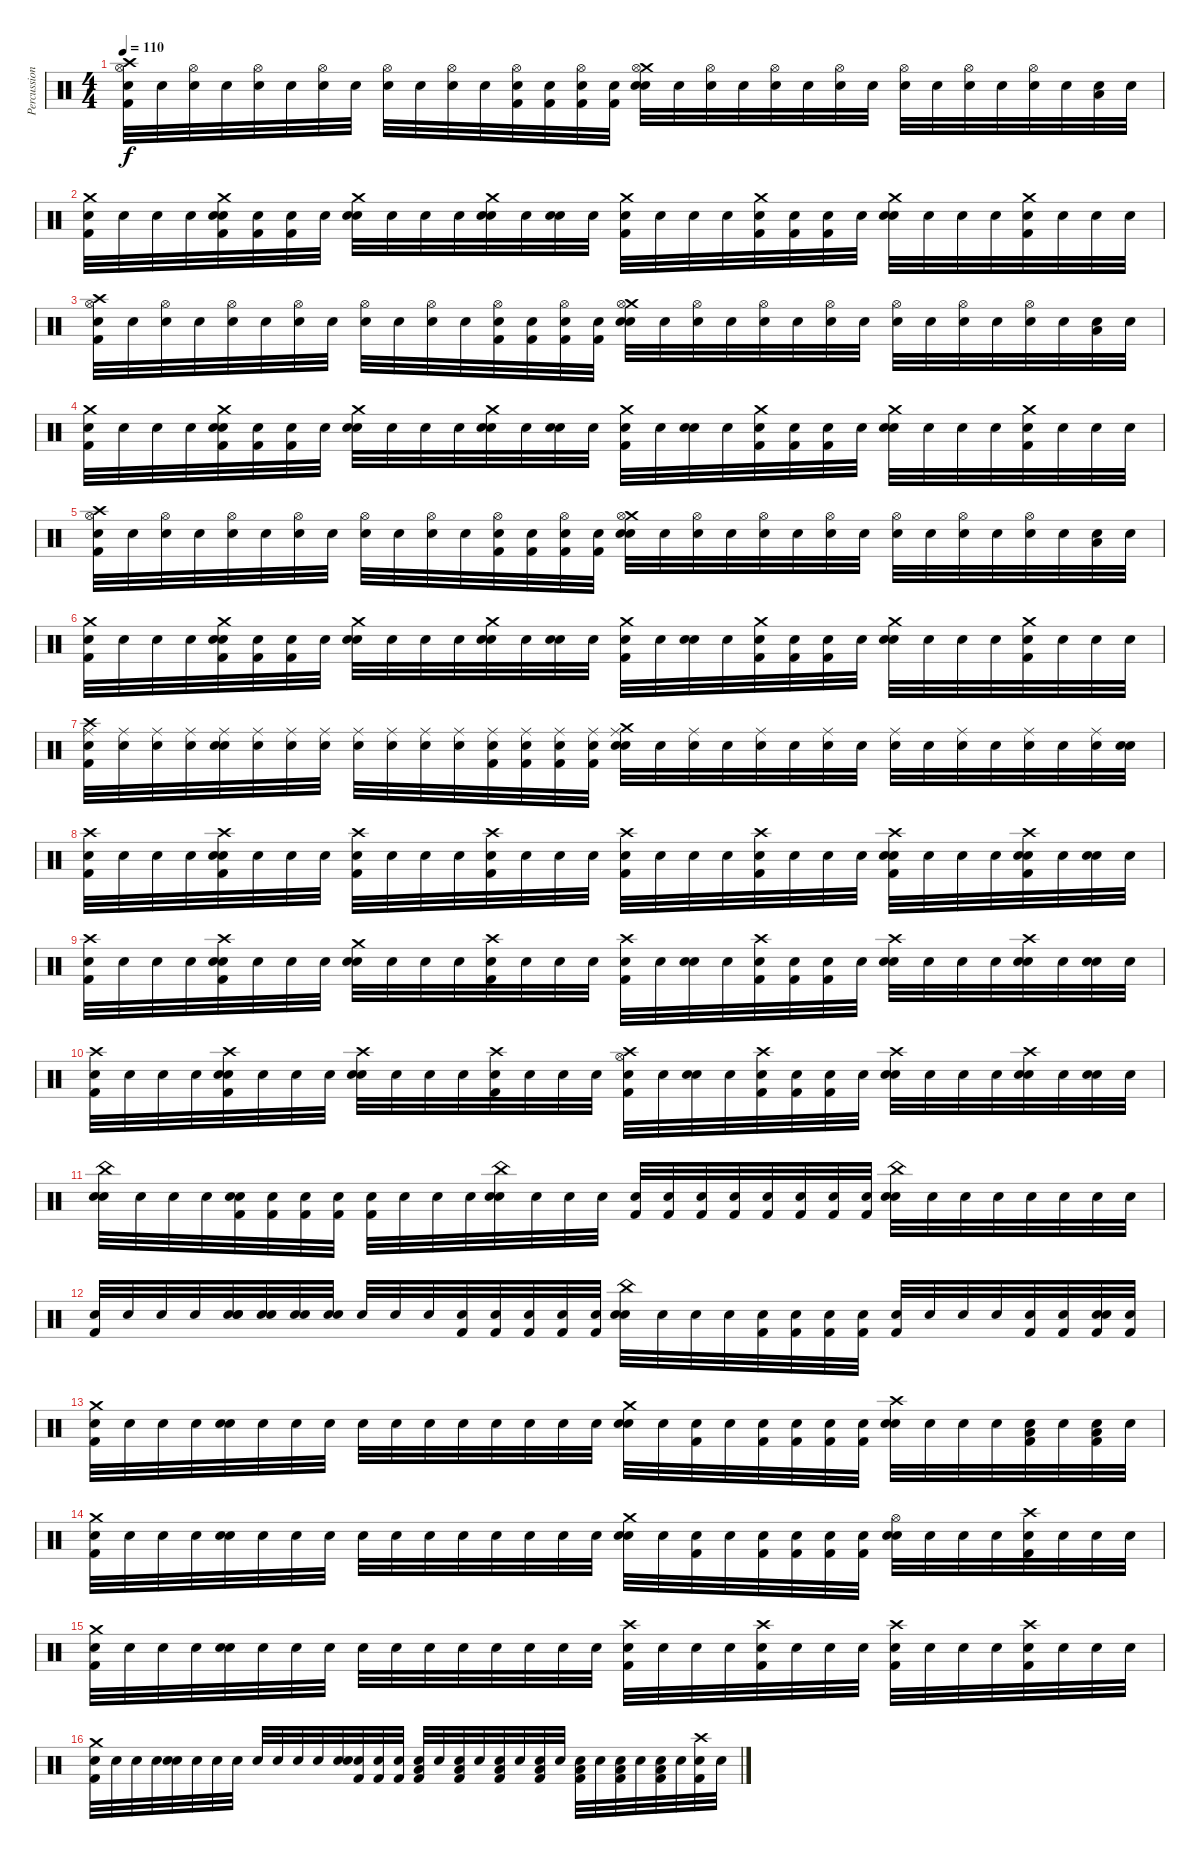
\track ("Percussions" "Percussion") {instrument percussion}
\staff {score}
\articulation defaults
\ts (4 4)
\tempo 110
\clef neutral
\ks c
("Crash high (hit)" "Hi-Hat (open)" "Kick (hit) 2" "Snare (hit)").32{dy f} "Snare (hit)".32 ("Hi-Hat (open)" "Snare (hit)").32 "Snare (hit)".32 ("Hi-Hat (open)" "Snare (hit)").32 "Snare (hit)".32 ("Hi-Hat (open)" "Snare (hit)").32 "Snare (hit)".32 ("Hi-Hat (open)" "Snare (hit)").32 "Snare (hit)".32 ("Hi-Hat (open)" "Snare (hit)").32 "Snare (hit)".32 ("Kick (hit) 2" "Hi-Hat (open)" "Snare (hit)").32 ("Kick (hit) 2" "Snare (hit)").32 ("Kick (hit) 2" "Hi-Hat (open)" "Snare (hit)").32 ("Kick (hit) 2" "Snare (hit)").32 ("Crash medium (hit)" "Snare (hit) 2" "Hi-Hat (open)" "Snare (hit)").32 "Snare (hit)".32 ("Hi-Hat (open)" "Snare (hit)").32 "Snare (hit)".32 ("Hi-Hat (open)" "Snare (hit)").32 "Snare (hit)".32 ("Hi-Hat (open)" "Snare (hit)").32 "Snare (hit)".32 ("Hi-Hat (open)" "Snare (hit)").32 "Snare (hit)".32 ("Hi-Hat (open)" "Snare (hit)").32 "Snare (hit)".32 ("Hi-Hat (open)" "Snare (hit)").32 "Snare (hit)".32 ("Low Tom (hit)" "Snare (hit)").32 "Snare (hit)".32 |
("Kick (hit) 2" "Crash medium (hit)" "Snare (hit)").32 "Snare (hit)".32 "Snare (hit)".32 "Snare (hit)".32 ("Kick (hit) 2" "Crash medium (hit)" "Snare (hit)" "Snare (hit)").32 ("Kick (hit) 2" "Snare (hit)").32 ("Kick (hit) 2" "Snare (hit)").32 "Snare (hit)".32 ("Snare (hit) 2" "Crash medium (hit)" "Snare (hit)").32 "Snare (hit)".32 "Snare (hit)".32 "Snare (hit)".32 ("Snare (hit) 2" "Crash medium (hit)" "Snare (hit)").32 "Snare (hit)".32 ("Snare (hit) 2" "Snare (hit)").32 "Snare (hit)".32 ("Kick (hit) 2" "Crash medium (hit)" "Snare (hit)").32 "Snare (hit)".32 "Snare (hit)".32 "Snare (hit)".32 ("Kick (hit) 2" "Crash medium (hit)" "Snare (hit)").32 ("Kick (hit) 2" "Snare (hit)").32 ("Kick (hit) 2" "Snare (hit)").32 "Snare (hit)".32 ("Snare (hit) 2" "Crash medium (hit)" "Snare (hit)").32 "Snare (hit)".32 "Snare (hit)".32 "Snare (hit)".32 ("Kick (hit) 2" "Crash medium (hit)" "Snare (hit)").32 "Snare (hit)".32 "Snare (hit)".32 "Snare (hit)".32 |
("Crash high (hit)" "Hi-Hat (open)" "Kick (hit) 2" "Snare (hit)").32 "Snare (hit)".32 ("Hi-Hat (open)" "Snare (hit)").32 "Snare (hit)".32 ("Hi-Hat (open)" "Snare (hit)").32 "Snare (hit)".32 ("Hi-Hat (open)" "Snare (hit)").32 "Snare (hit)".32 ("Hi-Hat (open)" "Snare (hit)").32 "Snare (hit)".32 ("Hi-Hat (open)" "Snare (hit)").32 "Snare (hit)".32 ("Kick (hit) 2" "Hi-Hat (open)" "Snare (hit)").32 ("Kick (hit) 2" "Snare (hit)").32 ("Kick (hit) 2" "Hi-Hat (open)" "Snare (hit)").32 ("Kick (hit) 2" "Snare (hit)").32 ("Crash medium (hit)" "Snare (hit) 2" "Hi-Hat (open)" "Snare (hit)").32 "Snare (hit)".32 ("Hi-Hat (open)" "Snare (hit)").32 "Snare (hit)".32 ("Hi-Hat (open)" "Snare (hit)").32 "Snare (hit)".32 ("Hi-Hat (open)" "Snare (hit)").32 "Snare (hit)".32 ("Hi-Hat (open)" "Snare (hit)").32 "Snare (hit)".32 ("Hi-Hat (open)" "Snare (hit)").32 "Snare (hit)".32 ("Hi-Hat (open)" "Snare (hit)").32 "Snare (hit)".32 ("Low Tom (hit)" "Snare (hit)").32 "Snare (hit)".32 |
("Kick (hit) 2" "Crash medium (hit)" "Snare (hit)").32 "Snare (hit)".32 "Snare (hit)".32 "Snare (hit)".32 ("Kick (hit) 2" "Crash medium (hit)" "Snare (hit)" "Snare (hit)").32 ("Kick (hit) 2" "Snare (hit)").32 ("Kick (hit) 2" "Snare (hit)").32 "Snare (hit)".32 ("Snare (hit) 2" "Crash medium (hit)" "Snare (hit)").32 "Snare (hit)".32 "Snare (hit)".32 "Snare (hit)".32 ("Snare (hit) 2" "Crash medium (hit)" "Snare (hit)").32 "Snare (hit)".32 ("Snare (hit) 2" "Snare (hit)").32 "Snare (hit)".32 ("Kick (hit) 2" "Crash medium (hit)" "Snare (hit)").32 "Snare (hit)".32 ("Snare (hit) 2" "Snare (hit)").32 "Snare (hit)".32 ("Kick (hit) 2" "Crash medium (hit)" "Snare (hit)").32 ("Kick (hit) 2" "Snare (hit)").32 ("Kick (hit) 2" "Snare (hit)").32 "Snare (hit)".32 ("Snare (hit) 2" "Crash medium (hit)" "Snare (hit)").32 "Snare (hit)".32 "Snare (hit)".32 "Snare (hit)".32 ("Kick (hit) 2" "Crash medium (hit)" "Snare (hit)").32 "Snare (hit)".32 "Snare (hit)".32 "Snare (hit)".32 |
("Crash high (hit)" "Hi-Hat (open)" "Kick (hit) 2" "Snare (hit)").32 "Snare (hit)".32 ("Hi-Hat (open)" "Snare (hit)").32 "Snare (hit)".32 ("Hi-Hat (open)" "Snare (hit)").32 "Snare (hit)".32 ("Hi-Hat (open)" "Snare (hit)").32 "Snare (hit)".32 ("Hi-Hat (open)" "Snare (hit)").32 "Snare (hit)".32 ("Hi-Hat (open)" "Snare (hit)").32 "Snare (hit)".32 ("Kick (hit) 2" "Hi-Hat (open)" "Snare (hit)").32 ("Kick (hit) 2" "Snare (hit)").32 ("Kick (hit) 2" "Hi-Hat (open)" "Snare (hit)").32 ("Kick (hit) 2" "Snare (hit)").32 ("Crash medium (hit)" "Snare (hit) 2" "Hi-Hat (open)" "Snare (hit)").32 "Snare (hit)".32 ("Hi-Hat (open)" "Snare (hit)").32 "Snare (hit)".32 ("Hi-Hat (open)" "Snare (hit)").32 "Snare (hit)".32 ("Hi-Hat (open)" "Snare (hit)").32 "Snare (hit)".32 ("Hi-Hat (open)" "Snare (hit)").32 "Snare (hit)".32 ("Hi-Hat (open)" "Snare (hit)").32 "Snare (hit)".32 ("Hi-Hat (open)" "Snare (hit)").32 "Snare (hit)".32 ("Low Tom (hit)" "Snare (hit)").32 "Snare (hit)".32 |
("Kick (hit) 2" "Crash medium (hit)" "Snare (hit)").32 "Snare (hit)".32 "Snare (hit)".32 "Snare (hit)".32 ("Kick (hit) 2" "Crash medium (hit)" "Snare (hit)" "Snare (hit)").32 ("Kick (hit) 2" "Snare (hit)").32 ("Kick (hit) 2" "Snare (hit)").32 "Snare (hit)".32 ("Snare (hit) 2" "Crash medium (hit)" "Snare (hit)").32 "Snare (hit)".32 "Snare (hit)".32 "Snare (hit)".32 ("Snare (hit) 2" "Crash medium (hit)" "Snare (hit)").32 "Snare (hit)".32 ("Snare (hit) 2" "Snare (hit)").32 "Snare (hit)".32 ("Kick (hit) 2" "Crash medium (hit)" "Snare (hit)").32 "Snare (hit)".32 ("Snare (hit) 2" "Snare (hit)").32 "Snare (hit)".32 ("Kick (hit) 2" "Crash medium (hit)" "Snare (hit)").32 ("Kick (hit) 2" "Snare (hit)").32 ("Kick (hit) 2" "Snare (hit)").32 "Snare (hit)".32 ("Snare (hit) 2" "Crash medium (hit)" "Snare (hit)").32 "Snare (hit)".32 "Snare (hit)".32 "Snare (hit)".32 ("Kick (hit) 2" "Crash medium (hit)" "Snare (hit)").32 "Snare (hit)".32 "Snare (hit)".32 "Snare (hit)".32 |
("Crash high (hit)" "Kick (hit) 2" "Ride (middle)" "Snare (hit)").32 ("Ride (middle)" "Snare (hit)").32 ("Ride (middle)" "Snare (hit)").32 ("Ride (middle)" "Snare (hit)").32 ("Ride (middle)" "Snare (hit)" "Snare (hit)").32 ("Ride (middle)" "Snare (hit)").32 ("Ride (middle)" "Snare (hit)").32 ("Ride (middle)" "Snare (hit)").32 ("Ride (middle)" "Snare (hit)").32 ("Ride (middle)" "Snare (hit)").32 ("Ride (middle)" "Snare (hit)").32 ("Ride (middle)" "Snare (hit)").32 ("Kick (hit) 2" "Ride (middle)" "Snare (hit)").32 ("Kick (hit) 2" "Ride (middle)" "Snare (hit)").32 ("Kick (hit) 2" "Ride (middle)" "Snare (hit)").32 ("Kick (hit) 2" "Ride (middle)" "Snare (hit)").32 ("Crash medium (hit)" "Snare (hit) 2" "Ride (middle)" "Snare (hit)").32 "Snare (hit)".32 ("Ride (middle)" "Snare (hit)").32 "Snare (hit)".32 ("Ride (middle)" "Snare (hit)").32 "Snare (hit)".32 ("Ride (middle)" "Snare (hit)").32 "Snare (hit)".32 ("Ride (middle)" "Snare (hit)").32 "Snare (hit)".32 ("Ride (middle)" "Snare (hit)").32 "Snare (hit)".32 ("Ride (middle)" "Snare (hit)").32 "Snare (hit)".32 ("Ride (middle)" "Snare (hit)").32 ("Snare (hit)" "Snare (hit)").32 |
("Crash high (hit)" "Kick (hit) 2" "Snare (hit)").32 "Snare (hit)".32 "Snare (hit)".32 "Snare (hit)".32 ("Crash high (hit)" "Kick (hit) 2" "Snare (hit)" "Snare (hit)").32 "Snare (hit)".32 "Snare (hit)".32 "Snare (hit)".32 ("Crash high (hit)" "Kick (hit) 2" "Snare (hit)").32 "Snare (hit)".32 "Snare (hit)".32 "Snare (hit)".32 ("Crash high (hit)" "Kick (hit) 2" "Snare (hit)").32 "Snare (hit)".32 "Snare (hit)".32 "Snare (hit)".32 ("Crash high (hit)" "Kick (hit) 2" "Snare (hit)").32 "Snare (hit)".32 "Snare (hit)".32 "Snare (hit)".32 ("Crash high (hit)" "Kick (hit) 2" "Snare (hit)").32 "Snare (hit)".32 "Snare (hit)".32 "Snare (hit)".32 ("Snare (hit) 2" "Crash high (hit)" "Kick (hit) 2" "Snare (hit)").32 "Snare (hit)".32 "Snare (hit)".32 "Snare (hit)".32 ("Snare (hit) 2" "Crash high (hit)" "Kick (hit) 2" "Snare (hit)").32 "Snare (hit)".32 ("Snare (hit) 2" "Snare (hit)").32 "Snare (hit)".32 |
("Crash high (hit)" "Kick (hit) 2" "Snare (hit)").32 "Snare (hit)".32 "Snare (hit)".32 "Snare (hit)".32 ("Crash high (hit)" "Kick (hit) 2" "Snare (hit)" "Snare (hit)").32 "Snare (hit)".32 "Snare (hit)".32 "Snare (hit)".32 ("Crash medium (hit)" "Snare (hit) 2" "Snare (hit)").32 "Snare (hit)".32 "Snare (hit)".32 "Snare (hit)".32 ("Crash high (hit)" "Kick (hit) 2" "Snare (hit)").32 "Snare (hit)".32 "Snare (hit)".32 "Snare (hit)".32 ("Crash high (hit)" "Kick (hit) 2" "Snare (hit)").32 "Snare (hit)".32 ("Snare (hit) 2" "Snare (hit)").32 "Snare (hit)".32 ("Crash high (hit)" "Kick (hit) 2" "Snare (hit)").32 ("Kick (hit) 2" "Snare (hit)").32 ("Kick (hit) 2" "Snare (hit)").32 "Snare (hit)".32 ("Crash high (hit)" "Snare (hit) 2" "Snare (hit)").32 "Snare (hit)".32 "Snare (hit)".32 "Snare (hit)".32 ("Crash high (hit)" "Snare (hit) 2" "Snare (hit)").32 "Snare (hit)".32 ("Snare (hit) 2" "Snare (hit)").32 "Snare (hit)".32 |
("Crash high (hit)" "Kick (hit) 2" "Snare (hit)").32 "Snare (hit)".32 "Snare (hit)".32 "Snare (hit)".32 ("Crash high (hit)" "Kick (hit) 2" "Snare (hit)" "Snare (hit)").32 "Snare (hit)".32 "Snare (hit)".32 "Snare (hit)".32 ("Crash high (hit)" "Snare (hit) 2" "Snare (hit)").32 "Snare (hit)".32 "Snare (hit)".32 "Snare (hit)".32 ("Crash high (hit)" "Kick (hit) 2" "Snare (hit)").32 "Snare (hit)".32 "Snare (hit)".32 "Snare (hit)".32 ("Hi-Hat (open)" "Crash high (hit)" "Kick (hit) 2" "Snare (hit)").32 "Snare (hit)".32 ("Snare (hit) 2" "Snare (hit)").32 "Snare (hit)".32 ("Crash high (hit)" "Kick (hit) 2" "Snare (hit)").32 ("Kick (hit) 2" "Snare (hit)").32 ("Kick (hit) 2" "Snare (hit)").32 "Snare (hit)".32 ("Crash high (hit)" "Snare (hit) 2" "Snare (hit)").32 "Snare (hit)".32 "Snare (hit)".32 "Snare (hit)".32 ("Crash high (hit)" "Snare (hit) 2" "Snare (hit)").32 "Snare (hit)".32 ("Snare (hit) 2" "Snare (hit)").32 "Snare (hit)".32 |
("China (hit)" "Snare (hit) 2" "Snare (hit)").32 "Snare (hit)".32 "Snare (hit)".32 "Snare (hit)".32 ("Kick (hit) 2" "Snare (hit)" "Snare (hit)").32 ("Kick (hit) 2" "Snare (hit)").32 ("Kick (hit) 2" "Snare (hit)").32 ("Kick (hit) 2" "Snare (hit)").32 ("Kick (hit) 2" "Snare (hit)").32 "Snare (hit)".32 "Snare (hit)".32 "Snare (hit)".32 ("China (hit)" "Snare (hit) 2" "Snare (hit)").32 "Snare (hit)".32 "Snare (hit)".32 "Snare (hit)".32 ("Kick (hit) 2" "Snare (hit)").32 ("Kick (hit) 2" "Snare (hit)").32 ("Kick (hit) 2" "Snare (hit)").32 ("Kick (hit) 2" "Snare (hit)").32 ("Kick (hit) 2" "Snare (hit)").32 ("Kick (hit) 2" "Snare (hit)").32 ("Kick (hit) 2" "Snare (hit)").32 ("Kick (hit) 2" "Snare (hit)").32 ("China (hit)" "Snare (hit) 2" "Snare (hit)").32 "Snare (hit)".32 "Snare (hit)".32 "Snare (hit)".32 "Snare (hit)".32 "Snare (hit)".32 "Snare (hit)".32 "Snare (hit)".32 |
("Kick (hit) 2" "Snare (hit)").32 "Snare (hit)".32 "Snare (hit)".32 "Snare (hit)".32 ("Snare (hit) 2" "Snare (hit)" "Snare (hit)").32 ("Snare (hit) 2" "Snare (hit)").32 ("Snare (hit) 2" "Snare (hit)").32 ("Snare (hit) 2" "Snare (hit)").32 "Snare (hit)".32 "Snare (hit)".32 "Snare (hit)".32 ("Kick (hit) 2" "Snare (hit)").32 ("Kick (hit) 2" "Snare (hit)").32 ("Kick (hit) 2" "Snare (hit)").32 ("Kick (hit) 2" "Snare (hit)").32 ("Kick (hit) 2" "Snare (hit)").32 ("China (hit)" "Snare (hit) 2" "Snare (hit)").32 "Snare (hit)".32 "Snare (hit)".32 "Snare (hit)".32 ("Kick (hit) 2" "Snare (hit)").32 ("Kick (hit) 2" "Snare (hit)").32 ("Kick (hit) 2" "Snare (hit)").32 ("Kick (hit) 2" "Snare (hit)").32 ("Kick (hit) 2" "Snare (hit)").32 "Snare (hit)".32 "Snare (hit)".32 "Snare (hit)".32 ("Kick (hit) 2" "Snare (hit)").32 ("Kick (hit) 2" "Snare (hit)").32 ("Snare (hit) 2" "Kick (hit) 2" "Snare (hit)").32 ("Kick (hit) 2" "Snare (hit)").32 |
("Crash medium (hit)" "Kick (hit) 2" "Snare (hit)").32 "Snare (hit)".32 "Snare (hit)".32 "Snare (hit)".32 ("Snare (hit)" "Snare (hit)").32 "Snare (hit)".32 "Snare (hit)".32 "Snare (hit)".32 "Snare (hit)".32 "Snare (hit)".32 "Snare (hit)".32 "Snare (hit)".32 "Snare (hit)".32 "Snare (hit)".32 "Snare (hit)".32 "Snare (hit)".32 ("Crash medium (hit)" "Snare (hit) 2" "Snare (hit)").32 "Snare (hit)".32 ("Kick (hit) 2" "Snare (hit)").32 "Snare (hit)".32 ("Kick (hit) 2" "Snare (hit)").32 ("Kick (hit) 2" "Snare (hit)").32 ("Kick (hit) 2" "Snare (hit)").32 ("Kick (hit) 2" "Snare (hit)").32 ("Crash high (hit)" "Snare (hit) 2" "Snare (hit)").32 "Snare (hit)".32 "Snare (hit)".32 "Snare (hit)".32 ("Low Tom (hit)" "Kick (hit) 2" "Snare (hit)").32 "Snare (hit)".32 ("Low Tom (hit)" "Kick (hit) 2" "Snare (hit)").32 "Snare (hit)".32 |
("Crash medium (hit)" "Kick (hit) 2" "Snare (hit)").32 "Snare (hit)".32 "Snare (hit)".32 "Snare (hit)".32 ("Snare (hit)" "Snare (hit)").32 "Snare (hit)".32 "Snare (hit)".32 "Snare (hit)".32 "Snare (hit)".32 "Snare (hit)".32 "Snare (hit)".32 "Snare (hit)".32 "Snare (hit)".32 "Snare (hit)".32 "Snare (hit)".32 "Snare (hit)".32 ("Crash medium (hit)" "Snare (hit) 2" "Snare (hit)").32 "Snare (hit)".32 ("Kick (hit) 2" "Snare (hit)").32 "Snare (hit)".32 ("Kick (hit) 2" "Snare (hit)").32 ("Kick (hit) 2" "Snare (hit)").32 ("Kick (hit) 2" "Snare (hit)").32 ("Kick (hit) 2" "Snare (hit)").32 ("Hi-Hat (open)" "Snare (hit) 2" "Snare (hit)").32 "Snare (hit)".32 "Snare (hit)".32 "Snare (hit)".32 ("Crash high (hit)" "Kick (hit) 2" "Snare (hit)").32 "Snare (hit)".32 "Snare (hit)".32 "Snare (hit)".32 |
("Crash medium (hit)" "Kick (hit) 2" "Snare (hit)").32 "Snare (hit)".32 "Snare (hit)".32 "Snare (hit)".32 ("Snare (hit)" "Snare (hit)").32 "Snare (hit)".32 "Snare (hit)".32 "Snare (hit)".32 "Snare (hit)".32 "Snare (hit)".32 "Snare (hit)".32 "Snare (hit)".32 "Snare (hit)".32 "Snare (hit)".32 "Snare (hit)".32 "Snare (hit)".32 ("Crash high (hit)" "Kick (hit) 2" "Snare (hit)").32 "Snare (hit)".32 "Snare (hit)".32 "Snare (hit)".32 ("Crash high (hit)" "Kick (hit) 2" "Snare (hit)").32 "Snare (hit)".32 "Snare (hit)".32 "Snare (hit)".32 ("Crash high (hit)" "Kick (hit) 2" "Snare (hit)").32 "Snare (hit)".32 "Snare (hit)".32 "Snare (hit)".32 ("Crash high (hit)" "Kick (hit) 2" "Snare (hit)").32 "Snare (hit)".32 "Snare (hit)".32 "Snare (hit)".32 |
("Kick (hit) 2" "Crash medium (hit)" "Snare (hit)").32 "Snare (hit)".32 "Snare (hit)".32 "Snare (hit)".32 ("Snare (hit)" "Snare (hit)").32 "Snare (hit)".32 "Snare (hit)".32 "Snare (hit)".32 "Snare (hit)".32 "Snare (hit)".32 "Snare (hit)".32 "Snare (hit)".32 ("Snare (hit)" "Snare (hit)").32 ("Kick (hit) 2" "Snare (hit)").32 ("Kick (hit) 2" "Snare (hit)").32 ("Kick (hit) 2" "Snare (hit)").32 ("Low Tom (hit)" "Kick (hit) 2" "Snare (hit)").32 "Snare (hit)".32 ("Low Tom (hit)" "Kick (hit) 2" "Snare (hit)").32 "Snare (hit)".32 ("Low Tom (hit)" "Kick (hit) 2" "Snare (hit)").32 "Snare (hit)".32 ("Low Tom (hit)" "Kick (hit) 2" "Snare (hit)").32 "Snare (hit)".32 ("Low Tom (hit)" "Kick (hit) 2" "Snare (hit)").32 "Snare (hit)".32 ("Low Tom (hit)" "Kick (hit) 2" "Snare (hit)").32 "Snare (hit)".32 ("Low Tom (hit)" "Kick (hit) 2" "Snare (hit)").32 "Snare (hit)".32 ("Crash high (hit)" "Kick (hit) 2" "Snare (hit)").32 "Snare (hit)".32
